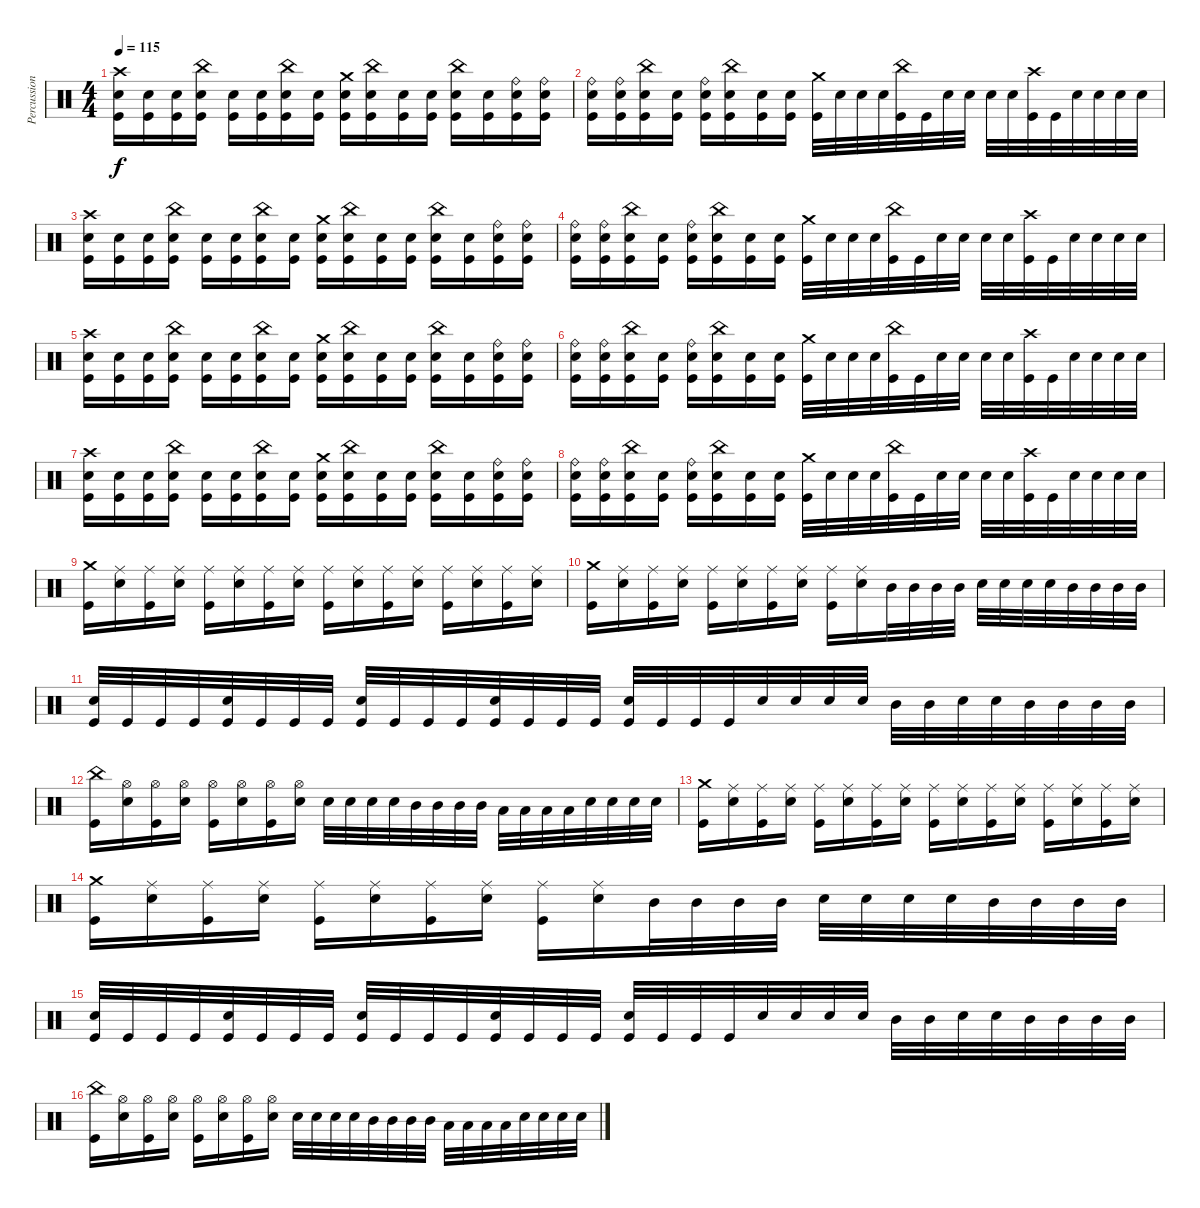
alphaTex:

\track ("Percussion" "Percussion") {instrument percussion}
\staff {score}
\articulation defaults
\ts (4 4)
\tempo 115
\clef neutral
\ks c
("Crash high (hit)" "Electric Snare (hit)" "Kick (hit)").16{dy f} ("Electric Snare (hit)" "Kick (hit)").16 ("Electric Snare (hit)" "Kick (hit)").16 ("China (hit)" "Electric Snare (hit)" "Kick (hit)").16 ("Electric Snare (hit)" "Kick (hit)").16 ("Electric Snare (hit)" "Kick (hit)").16 ("China (hit)" "Electric Snare (hit)" "Kick (hit)").16 ("Electric Snare (hit)" "Kick (hit)").16 ("Crash medium (hit)" "Electric Snare (hit)" "Kick (hit)").16 ("China (hit)" "Electric Snare (hit)" "Kick (hit)").16 ("Electric Snare (hit)" "Kick (hit)").16 ("Electric Snare (hit)" "Kick (hit)").16 ("China (hit)" "Electric Snare (hit)" "Kick (hit)").16 ("Electric Snare (hit)" "Kick (hit)").16 ("Ride (bell)" "Electric Snare (hit)" "Kick (hit)").16 ("Ride (bell)" "Electric Snare (hit)" "Kick (hit)").16 |
("Ride (bell)" "Electric Snare (hit)" "Kick (hit)").16 ("Ride (bell)" "Electric Snare (hit)" "Kick (hit)").16 ("China (hit)" "Electric Snare (hit)" "Kick (hit)").16 ("Electric Snare (hit)" "Kick (hit)").16 ("Ride (bell)" "Electric Snare (hit)" "Kick (hit)").16 ("China (hit)" "Electric Snare (hit)" "Kick (hit)").16 ("Electric Snare (hit)" "Kick (hit)").16 ("Electric Snare (hit)" "Kick (hit)").16 ("Crash medium (hit)" "Kick (hit)").32 "Electric Snare (hit)".32 "Electric Snare (hit)".32 "Electric Snare (hit)".32 ("China (hit)" "Kick (hit)").32 "Kick (hit)".32 "Electric Snare (hit)".32 "Electric Snare (hit)".32 "Electric Snare (hit)".32 "Electric Snare (hit)".32 ("Crash high (hit)" "Kick (hit)").32 "Kick (hit)".32 "Electric Snare (hit)".32 "Electric Snare (hit)".32 "Electric Snare (hit)".32 "Electric Snare (hit)".32 |
("Crash high (hit)" "Electric Snare (hit)" "Kick (hit)").16 ("Electric Snare (hit)" "Kick (hit)").16 ("Electric Snare (hit)" "Kick (hit)").16 ("China (hit)" "Electric Snare (hit)" "Kick (hit)").16 ("Electric Snare (hit)" "Kick (hit)").16 ("Electric Snare (hit)" "Kick (hit)").16 ("China (hit)" "Electric Snare (hit)" "Kick (hit)").16 ("Electric Snare (hit)" "Kick (hit)").16 ("Crash medium (hit)" "Electric Snare (hit)" "Kick (hit)").16 ("China (hit)" "Electric Snare (hit)" "Kick (hit)").16 ("Electric Snare (hit)" "Kick (hit)").16 ("Electric Snare (hit)" "Kick (hit)").16 ("China (hit)" "Electric Snare (hit)" "Kick (hit)").16 ("Electric Snare (hit)" "Kick (hit)").16 ("Ride (bell)" "Electric Snare (hit)" "Kick (hit)").16 ("Ride (bell)" "Electric Snare (hit)" "Kick (hit)").16 |
("Ride (bell)" "Electric Snare (hit)" "Kick (hit)").16 ("Ride (bell)" "Electric Snare (hit)" "Kick (hit)").16 ("China (hit)" "Electric Snare (hit)" "Kick (hit)").16 ("Electric Snare (hit)" "Kick (hit)").16 ("Ride (bell)" "Electric Snare (hit)" "Kick (hit)").16 ("China (hit)" "Electric Snare (hit)" "Kick (hit)").16 ("Electric Snare (hit)" "Kick (hit)").16 ("Electric Snare (hit)" "Kick (hit)").16 ("Crash medium (hit)" "Kick (hit)").32 "Electric Snare (hit)".32 "Electric Snare (hit)".32 "Electric Snare (hit)".32 ("China (hit)" "Kick (hit)").32 "Kick (hit)".32 "Electric Snare (hit)".32 "Electric Snare (hit)".32 "Electric Snare (hit)".32 "Electric Snare (hit)".32 ("Crash high (hit)" "Kick (hit)").32 "Kick (hit)".32 "Electric Snare (hit)".32 "Electric Snare (hit)".32 "Electric Snare (hit)".32 "Electric Snare (hit)".32 |
("Crash high (hit)" "Electric Snare (hit)" "Kick (hit)").16 ("Electric Snare (hit)" "Kick (hit)").16 ("Electric Snare (hit)" "Kick (hit)").16 ("China (hit)" "Electric Snare (hit)" "Kick (hit)").16 ("Electric Snare (hit)" "Kick (hit)").16 ("Electric Snare (hit)" "Kick (hit)").16 ("China (hit)" "Electric Snare (hit)" "Kick (hit)").16 ("Electric Snare (hit)" "Kick (hit)").16 ("Crash medium (hit)" "Electric Snare (hit)" "Kick (hit)").16 ("China (hit)" "Electric Snare (hit)" "Kick (hit)").16 ("Electric Snare (hit)" "Kick (hit)").16 ("Electric Snare (hit)" "Kick (hit)").16 ("China (hit)" "Electric Snare (hit)" "Kick (hit)").16 ("Electric Snare (hit)" "Kick (hit)").16 ("Ride (bell)" "Electric Snare (hit)" "Kick (hit)").16 ("Ride (bell)" "Electric Snare (hit)" "Kick (hit)").16 |
("Ride (bell)" "Electric Snare (hit)" "Kick (hit)").16 ("Ride (bell)" "Electric Snare (hit)" "Kick (hit)").16 ("China (hit)" "Electric Snare (hit)" "Kick (hit)").16 ("Electric Snare (hit)" "Kick (hit)").16 ("Ride (bell)" "Electric Snare (hit)" "Kick (hit)").16 ("China (hit)" "Electric Snare (hit)" "Kick (hit)").16 ("Electric Snare (hit)" "Kick (hit)").16 ("Electric Snare (hit)" "Kick (hit)").16 ("Crash medium (hit)" "Kick (hit)").32 "Electric Snare (hit)".32 "Electric Snare (hit)".32 "Electric Snare (hit)".32 ("China (hit)" "Kick (hit)").32 "Kick (hit)".32 "Electric Snare (hit)".32 "Electric Snare (hit)".32 "Electric Snare (hit)".32 "Electric Snare (hit)".32 ("Crash high (hit)" "Kick (hit)").32 "Kick (hit)".32 "Electric Snare (hit)".32 "Electric Snare (hit)".32 "Electric Snare (hit)".32 "Electric Snare (hit)".32 |
("Crash high (hit)" "Electric Snare (hit)" "Kick (hit)").16 ("Electric Snare (hit)" "Kick (hit)").16 ("Electric Snare (hit)" "Kick (hit)").16 ("China (hit)" "Electric Snare (hit)" "Kick (hit)").16 ("Electric Snare (hit)" "Kick (hit)").16 ("Electric Snare (hit)" "Kick (hit)").16 ("China (hit)" "Electric Snare (hit)" "Kick (hit)").16 ("Electric Snare (hit)" "Kick (hit)").16 ("Crash medium (hit)" "Electric Snare (hit)" "Kick (hit)").16 ("China (hit)" "Electric Snare (hit)" "Kick (hit)").16 ("Electric Snare (hit)" "Kick (hit)").16 ("Electric Snare (hit)" "Kick (hit)").16 ("China (hit)" "Electric Snare (hit)" "Kick (hit)").16 ("Electric Snare (hit)" "Kick (hit)").16 ("Ride (bell)" "Electric Snare (hit)" "Kick (hit)").16 ("Ride (bell)" "Electric Snare (hit)" "Kick (hit)").16 |
("Ride (bell)" "Electric Snare (hit)" "Kick (hit)").16 ("Ride (bell)" "Electric Snare (hit)" "Kick (hit)").16 ("China (hit)" "Electric Snare (hit)" "Kick (hit)").16 ("Electric Snare (hit)" "Kick (hit)").16 ("Ride (bell)" "Electric Snare (hit)" "Kick (hit)").16 ("China (hit)" "Electric Snare (hit)" "Kick (hit)").16 ("Electric Snare (hit)" "Kick (hit)").16 ("Electric Snare (hit)" "Kick (hit)").16 ("Crash medium (hit)" "Kick (hit)").32 "Electric Snare (hit)".32 "Electric Snare (hit)".32 "Electric Snare (hit)".32 ("China (hit)" "Kick (hit)").32 "Kick (hit)".32 "Electric Snare (hit)".32 "Electric Snare (hit)".32 "Electric Snare (hit)".32 "Electric Snare (hit)".32 ("Crash high (hit)" "Kick (hit)").32 "Kick (hit)".32 "Electric Snare (hit)".32 "Electric Snare (hit)".32 "Electric Snare (hit)".32 "Electric Snare (hit)".32 |
("Crash medium (hit)" "Kick (hit)").16 ("Ride (middle)" "Electric Snare (hit)").16 ("Ride (middle)" "Kick (hit)").16 ("Ride (middle)" "Electric Snare (hit)").16 ("Ride (middle)" "Kick (hit)").16 ("Ride (middle)" "Electric Snare (hit)").16 ("Ride (middle)" "Kick (hit)").16 ("Ride (middle)" "Electric Snare (hit)").16 ("Ride (middle)" "Kick (hit)").16 ("Ride (middle)" "Electric Snare (hit)").16 ("Ride (middle)" "Kick (hit)").16 ("Ride (middle)" "Electric Snare (hit)").16 ("Ride (middle)" "Kick (hit)").16 ("Ride (middle)" "Electric Snare (hit)").16 ("Ride (middle)" "Kick (hit)").16 ("Ride (middle)" "Electric Snare (hit)").16 |
("Crash medium (hit)" "Kick (hit)").16 ("Ride (middle)" "Electric Snare (hit)").16 ("Ride (middle)" "Kick (hit)").16 ("Ride (middle)" "Electric Snare (hit)").16 ("Ride (middle)" "Kick (hit)").16 ("Ride (middle)" "Electric Snare (hit)").16 ("Ride (middle)" "Kick (hit)").16 ("Ride (middle)" "Electric Snare (hit)").16 ("Ride (middle)" "Kick (hit)").16 ("Ride (middle)" "Electric Snare (hit)").16 "Mid Tom (hit)".32 "Mid Tom (hit)".32 "Mid Tom (hit)".32 "Mid Tom (hit)".32 "Electric Snare (hit)".32 "Electric Snare (hit)".32 "Electric Snare (hit)".32 "Electric Snare (hit)".32 "Mid Tom (hit)".32 "Mid Tom (hit)".32 "Mid Tom (hit)".32 "Mid Tom (hit)".32 |
("Electric Snare (hit)" "Kick (hit)").32 "Kick (hit)".32 "Kick (hit)".32 "Kick (hit)".32 ("Electric Snare (hit)" "Kick (hit)").32 "Kick (hit)".32 "Kick (hit)".32 "Kick (hit)".32 ("Electric Snare (hit)" "Kick (hit)").32 "Kick (hit)".32 "Kick (hit)".32 "Kick (hit)".32 ("Electric Snare (hit)" "Kick (hit)").32 "Kick (hit)".32 "Kick (hit)".32 "Kick (hit)".32 ("Electric Snare (hit)" "Kick (hit)").32 "Kick (hit)".32 "Kick (hit)".32 "Kick (hit)".32 "Electric Snare (hit)".32 "Electric Snare (hit)".32 "Electric Snare (hit)".32 "Electric Snare (hit)".32 "Mid Tom (hit)".32 "Mid Tom (hit)".32 "Electric Snare (hit)".32 "Electric Snare (hit)".32 "Mid Tom (hit)".32 "Mid Tom (hit)".32 "Mid Tom (hit)".32 "Mid Tom (hit)".32 |
("China (hit)" "Kick (hit)").16 ("Hi-Hat (open)" "Electric Snare (hit)").16 ("Hi-Hat (open)" "Kick (hit)").16 ("Hi-Hat (open)" "Electric Snare (hit)").16 ("Hi-Hat (open)" "Kick (hit)").16 ("Hi-Hat (open)" "Electric Snare (hit)").16 ("Hi-Hat (open)" "Kick (hit)").16 ("Hi-Hat (open)" "Electric Snare (hit)").16 "Electric Snare (hit)".32 "Electric Snare (hit)".32 "Electric Snare (hit)".32 "Electric Snare (hit)".32 "Mid Tom (hit)".32 "Mid Tom (hit)".32 "Mid Tom (hit)".32 "Mid Tom (hit)".32 "Low Tom (hit)".32 "Low Tom (hit)".32 "Low Tom (hit)".32 "Low Tom (hit)".32 "Electric Snare (hit)".32 "Electric Snare (hit)".32 "Electric Snare (hit)".32 "Electric Snare (hit)".32 |
("Crash medium (hit)" "Kick (hit)").16 ("Ride (middle)" "Electric Snare (hit)").16 ("Ride (middle)" "Kick (hit)").16 ("Ride (middle)" "Electric Snare (hit)").16 ("Ride (middle)" "Kick (hit)").16 ("Ride (middle)" "Electric Snare (hit)").16 ("Ride (middle)" "Kick (hit)").16 ("Ride (middle)" "Electric Snare (hit)").16 ("Ride (middle)" "Kick (hit)").16 ("Ride (middle)" "Electric Snare (hit)").16 ("Ride (middle)" "Kick (hit)").16 ("Ride (middle)" "Electric Snare (hit)").16 ("Ride (middle)" "Kick (hit)").16 ("Ride (middle)" "Electric Snare (hit)").16 ("Ride (middle)" "Kick (hit)").16 ("Ride (middle)" "Electric Snare (hit)").16 |
("Crash medium (hit)" "Kick (hit)").16 ("Ride (middle)" "Electric Snare (hit)").16 ("Ride (middle)" "Kick (hit)").16 ("Ride (middle)" "Electric Snare (hit)").16 ("Ride (middle)" "Kick (hit)").16 ("Ride (middle)" "Electric Snare (hit)").16 ("Ride (middle)" "Kick (hit)").16 ("Ride (middle)" "Electric Snare (hit)").16 ("Ride (middle)" "Kick (hit)").16 ("Ride (middle)" "Electric Snare (hit)").16 "Mid Tom (hit)".32 "Mid Tom (hit)".32 "Mid Tom (hit)".32 "Mid Tom (hit)".32 "Electric Snare (hit)".32 "Electric Snare (hit)".32 "Electric Snare (hit)".32 "Electric Snare (hit)".32 "Mid Tom (hit)".32 "Mid Tom (hit)".32 "Mid Tom (hit)".32 "Mid Tom (hit)".32 |
("Electric Snare (hit)" "Kick (hit)").32 "Kick (hit)".32 "Kick (hit)".32 "Kick (hit)".32 ("Electric Snare (hit)" "Kick (hit)").32 "Kick (hit)".32 "Kick (hit)".32 "Kick (hit)".32 ("Electric Snare (hit)" "Kick (hit)").32 "Kick (hit)".32 "Kick (hit)".32 "Kick (hit)".32 ("Electric Snare (hit)" "Kick (hit)").32 "Kick (hit)".32 "Kick (hit)".32 "Kick (hit)".32 ("Electric Snare (hit)" "Kick (hit)").32 "Kick (hit)".32 "Kick (hit)".32 "Kick (hit)".32 "Electric Snare (hit)".32 "Electric Snare (hit)".32 "Electric Snare (hit)".32 "Electric Snare (hit)".32 "Mid Tom (hit)".32 "Mid Tom (hit)".32 "Electric Snare (hit)".32 "Electric Snare (hit)".32 "Mid Tom (hit)".32 "Mid Tom (hit)".32 "Mid Tom (hit)".32 "Mid Tom (hit)".32 |
("China (hit)" "Kick (hit)").16 ("Hi-Hat (open)" "Electric Snare (hit)").16 ("Hi-Hat (open)" "Kick (hit)").16 ("Hi-Hat (open)" "Electric Snare (hit)").16 ("Hi-Hat (open)" "Kick (hit)").16 ("Hi-Hat (open)" "Electric Snare (hit)").16 ("Hi-Hat (open)" "Kick (hit)").16 ("Hi-Hat (open)" "Electric Snare (hit)").16 "Electric Snare (hit)".32 "Electric Snare (hit)".32 "Electric Snare (hit)".32 "Electric Snare (hit)".32 "Mid Tom (hit)".32 "Mid Tom (hit)".32 "Mid Tom (hit)".32 "Mid Tom (hit)".32 "Low Tom (hit)".32 "Low Tom (hit)".32 "Low Tom (hit)".32 "Low Tom (hit)".32 "Electric Snare (hit)".32 "Electric Snare (hit)".32 "Electric Snare (hit)".32 "Electric Snare (hit)".32
